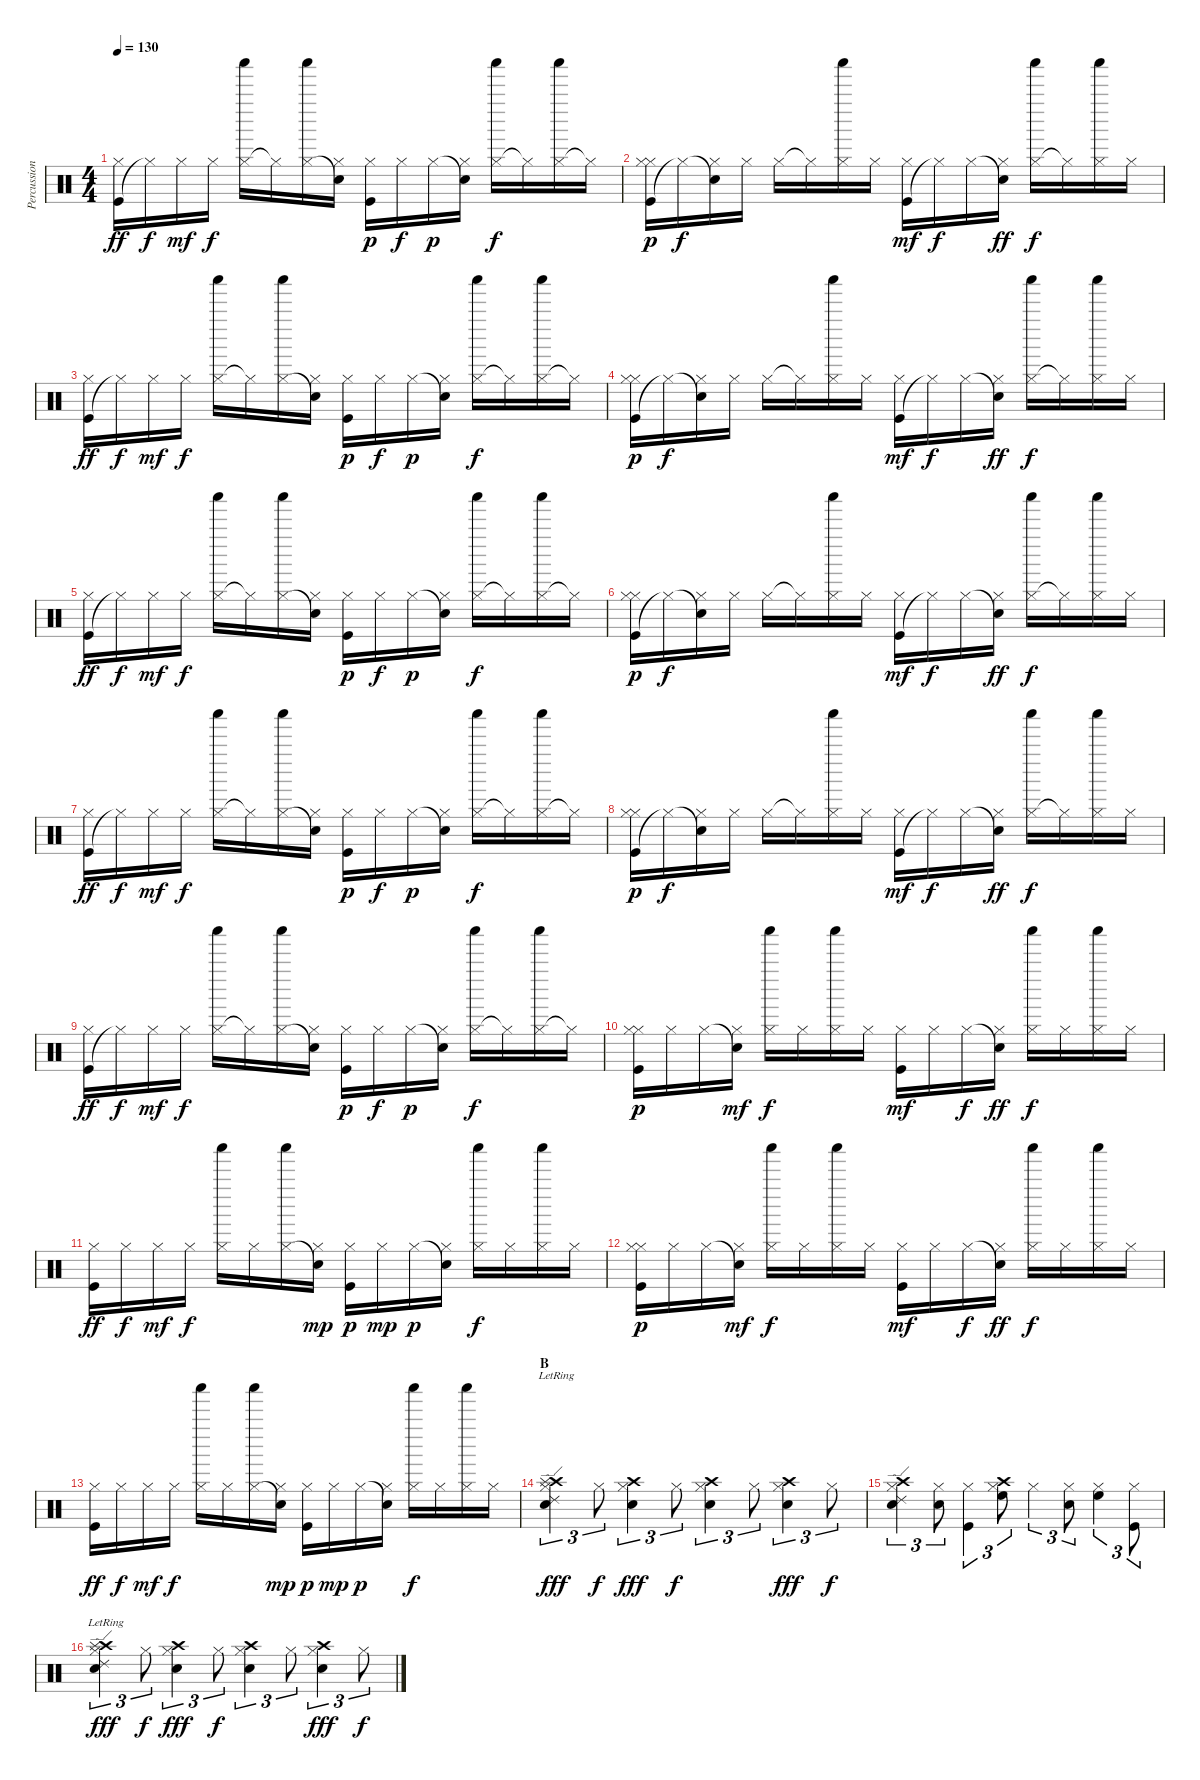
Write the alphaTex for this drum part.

\track ("Percussion" "Percussion") {instrument percussion}
\staff {score}
\articulation defaults
\ts (4 4)
\tempo 130
\clef neutral
\ks c
("Kick (hit)" "Hi-Hat (closed)").16{dy ff} "Hi-Hat (closed)"{t}.16{dy f} "Hi-Hat (closed)".16{dy mf} "Hi-Hat (closed)".16{dy f} ("Hi-Hat (closed)" "Shaker (hit)").16 "Hi-Hat (closed)"{t}.16 ("Hi-Hat (closed)" "Shaker (hit)").16 ("Snare (hit)"{t} "Hi-Hat (closed)").16 ("Kick (hit)" "Hi-Hat (closed)").16{dy p} "Hi-Hat (closed)".16{dy f} "Hi-Hat (closed)".16{dy p} ("Snare (hit)"{t} "Hi-Hat (closed)").16 ("Hi-Hat (closed)" "Shaker (hit)").16{dy f} "Hi-Hat (closed)"{t}.16 ("Hi-Hat (closed)" "Shaker (hit)").16 "Hi-Hat (closed)"{t}.16 |
("Kick (hit)" "Hi-Hat (closed)" "Hi-Hat (closed)").16{dy p} "Hi-Hat (closed)"{t}.16{dy f} ("Snare (hit)"{t} "Hi-Hat (closed)").16 "Hi-Hat (closed)".16 "Hi-Hat (closed)".16 "Hi-Hat (closed)"{t}.16 ("Hi-Hat (closed)" "Shaker (hit)").16 "Hi-Hat (closed)".16 ("Kick (hit)" "Hi-Hat (closed)").16{dy mf} "Hi-Hat (closed)"{t}.16{dy f} "Hi-Hat (closed)".16 ("Snare (hit)"{t} "Hi-Hat (closed)").16{dy ff} ("Hi-Hat (closed)" "Shaker (hit)").16{dy f} "Hi-Hat (closed)"{t}.16 ("Hi-Hat (closed)" "Shaker (hit)").16 "Hi-Hat (closed)".16 |
("Kick (hit)" "Hi-Hat (closed)").16{dy ff} "Hi-Hat (closed)"{t}.16{dy f} "Hi-Hat (closed)".16{dy mf} "Hi-Hat (closed)".16{dy f} ("Hi-Hat (closed)" "Shaker (hit)").16 "Hi-Hat (closed)"{t}.16 ("Hi-Hat (closed)" "Shaker (hit)").16 ("Snare (hit)"{t} "Hi-Hat (closed)").16 ("Kick (hit)" "Hi-Hat (closed)").16{dy p} "Hi-Hat (closed)".16{dy f} "Hi-Hat (closed)".16{dy p} ("Snare (hit)"{t} "Hi-Hat (closed)").16 ("Hi-Hat (closed)" "Shaker (hit)").16{dy f} "Hi-Hat (closed)"{t}.16 ("Hi-Hat (closed)" "Shaker (hit)").16 "Hi-Hat (closed)"{t}.16 |
("Kick (hit)" "Hi-Hat (closed)" "Hi-Hat (closed)").16{dy p} "Hi-Hat (closed)"{t}.16{dy f} ("Snare (hit)"{t} "Hi-Hat (closed)").16 "Hi-Hat (closed)".16 "Hi-Hat (closed)".16 "Hi-Hat (closed)"{t}.16 ("Hi-Hat (closed)" "Shaker (hit)").16 "Hi-Hat (closed)".16 ("Kick (hit)" "Hi-Hat (closed)").16{dy mf} "Hi-Hat (closed)"{t}.16{dy f} "Hi-Hat (closed)".16 ("Snare (hit)"{t} "Hi-Hat (closed)").16{dy ff} ("Hi-Hat (closed)" "Shaker (hit)").16{dy f} "Hi-Hat (closed)"{t}.16 ("Hi-Hat (closed)" "Shaker (hit)").16 "Hi-Hat (closed)".16 |
("Kick (hit)" "Hi-Hat (closed)").16{dy ff} "Hi-Hat (closed)"{t}.16{dy f} "Hi-Hat (closed)".16{dy mf} "Hi-Hat (closed)".16{dy f} ("Hi-Hat (closed)" "Shaker (hit)").16 "Hi-Hat (closed)"{t}.16 ("Hi-Hat (closed)" "Shaker (hit)").16 ("Snare (hit)"{t} "Hi-Hat (closed)").16 ("Kick (hit)" "Hi-Hat (closed)").16{dy p} "Hi-Hat (closed)".16{dy f} "Hi-Hat (closed)".16{dy p} ("Snare (hit)"{t} "Hi-Hat (closed)").16 ("Hi-Hat (closed)" "Shaker (hit)").16{dy f} "Hi-Hat (closed)"{t}.16 ("Hi-Hat (closed)" "Shaker (hit)").16 "Hi-Hat (closed)"{t}.16 |
("Kick (hit)" "Hi-Hat (closed)" "Hi-Hat (closed)").16{dy p} "Hi-Hat (closed)"{t}.16{dy f} ("Snare (hit)"{t} "Hi-Hat (closed)").16 "Hi-Hat (closed)".16 "Hi-Hat (closed)".16 "Hi-Hat (closed)"{t}.16 ("Hi-Hat (closed)" "Shaker (hit)").16 "Hi-Hat (closed)".16 ("Kick (hit)" "Hi-Hat (closed)").16{dy mf} "Hi-Hat (closed)"{t}.16{dy f} "Hi-Hat (closed)".16 ("Snare (hit)"{t} "Hi-Hat (closed)").16{dy ff} ("Hi-Hat (closed)" "Shaker (hit)").16{dy f} "Hi-Hat (closed)"{t}.16 ("Hi-Hat (closed)" "Shaker (hit)").16 "Hi-Hat (closed)".16 |
("Kick (hit)" "Hi-Hat (closed)").16{dy ff} "Hi-Hat (closed)"{t}.16{dy f} "Hi-Hat (closed)".16{dy mf} "Hi-Hat (closed)".16{dy f} ("Hi-Hat (closed)" "Shaker (hit)").16 "Hi-Hat (closed)"{t}.16 ("Hi-Hat (closed)" "Shaker (hit)").16 ("Snare (hit)"{t} "Hi-Hat (closed)").16 ("Kick (hit)" "Hi-Hat (closed)").16{dy p} "Hi-Hat (closed)".16{dy f} "Hi-Hat (closed)".16{dy p} ("Snare (hit)"{t} "Hi-Hat (closed)").16 ("Hi-Hat (closed)" "Shaker (hit)").16{dy f} "Hi-Hat (closed)"{t}.16 ("Hi-Hat (closed)" "Shaker (hit)").16 "Hi-Hat (closed)"{t}.16 |
("Kick (hit)" "Hi-Hat (closed)" "Hi-Hat (closed)").16{dy p} "Hi-Hat (closed)"{t}.16{dy f} ("Snare (hit)"{t} "Hi-Hat (closed)").16 "Hi-Hat (closed)".16 "Hi-Hat (closed)".16 "Hi-Hat (closed)"{t}.16 ("Hi-Hat (closed)" "Shaker (hit)").16 "Hi-Hat (closed)".16 ("Kick (hit)" "Hi-Hat (closed)").16{dy mf} "Hi-Hat (closed)"{t}.16{dy f} "Hi-Hat (closed)".16 ("Snare (hit)"{t} "Hi-Hat (closed)").16{dy ff} ("Hi-Hat (closed)" "Shaker (hit)").16{dy f} "Hi-Hat (closed)"{t}.16 ("Hi-Hat (closed)" "Shaker (hit)").16 "Hi-Hat (closed)".16 |
("Kick (hit)" "Hi-Hat (closed)").16{dy ff} "Hi-Hat (closed)"{t}.16{dy f} "Hi-Hat (closed)".16{dy mf} "Hi-Hat (closed)".16{dy f} ("Hi-Hat (closed)" "Shaker (hit)").16 "Hi-Hat (closed)"{t}.16 ("Hi-Hat (closed)" "Shaker (hit)").16 ("Snare (hit)"{t} "Hi-Hat (closed)").16 ("Kick (hit)" "Hi-Hat (closed)").16{dy p} "Hi-Hat (closed)".16{dy f} "Hi-Hat (closed)".16{dy p} ("Snare (hit)"{t} "Hi-Hat (closed)").16 ("Hi-Hat (closed)" "Shaker (hit)").16{dy f} "Hi-Hat (closed)"{t}.16 ("Hi-Hat (closed)" "Shaker (hit)").16 "Hi-Hat (closed)"{t}.16 |
("Kick (hit)" "Hi-Hat (closed)" "Hi-Hat (closed)").16{dy p volume 12} "Hi-Hat (closed)".16 "Hi-Hat (closed)".16 ("Snare (hit)"{t} "Hi-Hat (closed)").16{dy mf} ("Hi-Hat (closed)" "Shaker (hit)").16{dy f} "Hi-Hat (closed)".16 ("Hi-Hat (closed)" "Shaker (hit)").16 "Hi-Hat (closed)".16 ("Kick (hit)" "Hi-Hat (closed)").16{dy mf} "Hi-Hat (closed)".16 "Hi-Hat (closed)".16{dy f} ("Snare (hit)"{t} "Hi-Hat (closed)").16{dy ff} ("Hi-Hat (closed)" "Shaker (hit)").16{dy f} "Hi-Hat (closed)".16 ("Hi-Hat (closed)" "Shaker (hit)").16 "Hi-Hat (closed)".16 |
("Kick (hit)" "Hi-Hat (closed)").16{dy ff} "Hi-Hat (closed)".16{dy f} "Hi-Hat (closed)".16{dy mf} "Hi-Hat (closed)".16{dy f} ("Hi-Hat (closed)" "Shaker (hit)").16 "Hi-Hat (closed)".16 ("Hi-Hat (closed)" "Shaker (hit)").16 ("Snare (hit)"{t} "Hi-Hat (closed)").16{dy mp} ("Kick (hit)" "Hi-Hat (closed)").16{dy p} "Hi-Hat (closed)".16{dy mp} "Hi-Hat (closed)".16{dy p} ("Snare (hit)"{t} "Hi-Hat (closed)").16 ("Hi-Hat (closed)" "Shaker (hit)").16{dy f} "Hi-Hat (closed)".16 ("Hi-Hat (closed)" "Shaker (hit)").16 "Hi-Hat (closed)".16 |
("Kick (hit)" "Hi-Hat (closed)" "Hi-Hat (closed)").16{dy p volume 16} "Hi-Hat (closed)".16 "Hi-Hat (closed)".16 ("Snare (hit)"{t} "Hi-Hat (closed)").16{dy mf} ("Hi-Hat (closed)" "Shaker (hit)").16{dy f} "Hi-Hat (closed)".16 ("Hi-Hat (closed)" "Shaker (hit)").16 "Hi-Hat (closed)".16 ("Kick (hit)" "Hi-Hat (closed)").16{dy mf} "Hi-Hat (closed)".16 "Hi-Hat (closed)".16{dy f} ("Snare (hit)"{t} "Hi-Hat (closed)").16{dy ff} ("Hi-Hat (closed)" "Shaker (hit)").16{dy f} "Hi-Hat (closed)".16 ("Hi-Hat (closed)" "Shaker (hit)").16 "Hi-Hat (closed)".16 |
("Kick (hit)" "Hi-Hat (closed)").16{dy ff} "Hi-Hat (closed)".16{dy f} "Hi-Hat (closed)".16{dy mf} "Hi-Hat (closed)".16{dy f} ("Hi-Hat (closed)" "Shaker (hit)").16 "Hi-Hat (closed)".16 ("Hi-Hat (closed)" "Shaker (hit)").16 ("Snare (hit)"{t} "Hi-Hat (closed)").16{dy mp} ("Kick (hit)" "Hi-Hat (closed)").16{dy p} "Hi-Hat (closed)".16{dy mp} "Hi-Hat (closed)".16{dy p} ("Snare (hit)"{t} "Hi-Hat (closed)").16 ("Hi-Hat (closed)" "Shaker (hit)").16{dy f} "Hi-Hat (closed)".16 ("Hi-Hat (closed)" "Shaker (hit)").16 "Hi-Hat (closed)".16 |
\section ("" "B")
("Crash high (hit)"{lr} "Ride (edge) 2" "Splash (hit)"{lr} "Hi-Hat (closed)"{lr} "Snare (hit) 2").4{tu (3 2) dy fff} "Hi-Hat (closed)".8{tu (3 2) dy f} ("Crash high (hit)" "Electric Snare (hit)" "Hi-Hat (closed)").4{tu (3 2) dy fff} "Hi-Hat (closed)".8{tu (3 2) dy f} ("Crash high (hit)" "Hi-Hat (closed)" "Snare (hit) 2").4{tu (3 2)} "Hi-Hat (closed)".8{tu (3 2)} ("Crash high (hit)" "Electric Snare (hit)" "Hi-Hat (closed)").4{tu (3 2) dy fff} "Hi-Hat (closed)".8{tu (3 2) dy f} |
("Crash high (hit)" "Ride (edge) 2" "Hi-Hat (closed)" "Snare (hit) 2").4{tu (3 2)} ("Snare (hit) 2" "Hi-Hat (closed)").8{tu (3 2)} ("Kick (hit)" "Hi-Hat (closed)").4{tu (3 2)} ("Crash high (hit)" "High Floor Tom (hit)" "Hi-Hat (closed)").8{tu (3 2)} "Hi-Hat (closed)".4{tu (3 2)} ("Snare (hit) 2" "Hi-Hat (closed)").8{tu (3 2)} ("High Floor Tom (hit)" "Hi-Hat (closed)").4{tu (3 2)} ("Kick (hit)" "Hi-Hat (closed)").8{tu (3 2)} |
("Crash high (hit)"{lr} "Ride (edge) 2" "Splash (hit)"{lr} "Hi-Hat (closed)"{lr} "Snare (hit) 2").4{tu (3 2) dy fff} "Hi-Hat (closed)".8{tu (3 2) dy f} ("Crash high (hit)" "Electric Snare (hit)" "Hi-Hat (closed)").4{tu (3 2) dy fff} "Hi-Hat (closed)".8{tu (3 2) dy f} ("Crash high (hit)" "Hi-Hat (closed)" "Snare (hit) 2").4{tu (3 2)} "Hi-Hat (closed)".8{tu (3 2)} ("Crash high (hit)" "Electric Snare (hit)" "Hi-Hat (closed)").4{tu (3 2) dy fff} "Hi-Hat (closed)".8{tu (3 2) dy f}
